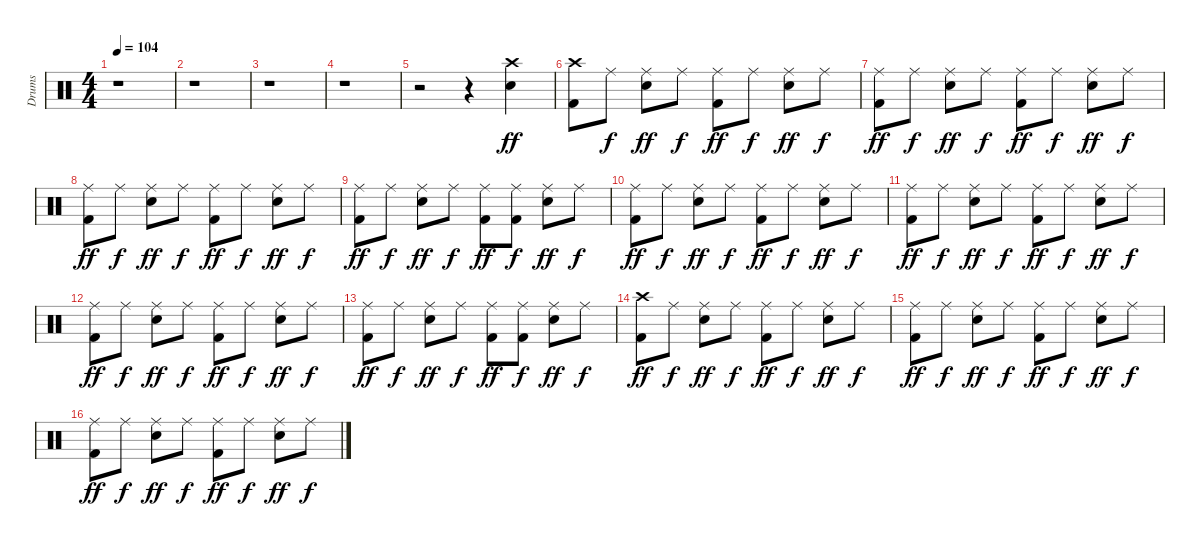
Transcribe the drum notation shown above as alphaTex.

\track ("Drums" "Drums") {instrument percussion}
\staff {score}
\articulation defaults
\ts (4 4)
\tempo 104
\clef neutral
\ks c
r.1{dy ff} |
r.1 |
r.1 |
r.1 |
r.2 r.4 ("Crash high (hit)" "Snare (hit) 2").4 |
("Crash high (hit)" "Kick (hit) 2").8 "Ride (middle)".8{dy f} ("Ride (middle)" "Snare (hit) 2").8{dy ff} "Ride (middle)".8{dy f} ("Ride (middle)" "Kick (hit) 2").8{dy ff} "Ride (middle)".8{dy f} ("Ride (middle)" "Snare (hit) 2").8{dy ff} "Ride (middle)".8{dy f} |
("Ride (middle)" "Kick (hit) 2").8{dy ff} "Ride (middle)".8{dy f} ("Ride (middle)" "Snare (hit) 2").8{dy ff} "Ride (middle)".8{dy f} ("Ride (middle)" "Kick (hit) 2").8{dy ff} "Ride (middle)".8{dy f} ("Ride (middle)" "Snare (hit) 2").8{dy ff} "Ride (middle)".8{dy f} |
("Ride (middle)" "Kick (hit) 2").8{dy ff} "Ride (middle)".8{dy f} ("Ride (middle)" "Snare (hit) 2").8{dy ff} "Ride (middle)".8{dy f} ("Ride (middle)" "Kick (hit) 2").8{dy ff} "Ride (middle)".8{dy f} ("Ride (middle)" "Snare (hit) 2").8{dy ff} "Ride (middle)".8{dy f} |
("Ride (middle)" "Kick (hit) 2").8{dy ff} "Ride (middle)".8{dy f} ("Ride (middle)" "Snare (hit) 2").8{dy ff} "Ride (middle)".8{dy f} ("Ride (middle)" "Kick (hit) 2").8{dy ff} ("Ride (middle)" "Kick (hit) 2").8{dy f} ("Ride (middle)" "Snare (hit) 2").8{dy ff} "Ride (middle)".8{dy f} |
("Ride (middle)" "Kick (hit) 2").8{dy ff} "Ride (middle)".8{dy f} ("Ride (middle)" "Snare (hit) 2").8{dy ff} "Ride (middle)".8{dy f} ("Ride (middle)" "Kick (hit) 2").8{dy ff} "Ride (middle)".8{dy f} ("Ride (middle)" "Snare (hit) 2").8{dy ff} "Ride (middle)".8{dy f} |
("Ride (middle)" "Kick (hit) 2").8{dy ff} "Ride (middle)".8{dy f} ("Ride (middle)" "Snare (hit) 2").8{dy ff} "Ride (middle)".8{dy f} ("Ride (middle)" "Kick (hit) 2").8{dy ff} "Ride (middle)".8{dy f} ("Ride (middle)" "Snare (hit) 2").8{dy ff} "Ride (middle)".8{dy f} |
("Ride (middle)" "Kick (hit) 2").8{dy ff} "Ride (middle)".8{dy f} ("Ride (middle)" "Snare (hit) 2").8{dy ff} "Ride (middle)".8{dy f} ("Ride (middle)" "Kick (hit) 2").8{dy ff} "Ride (middle)".8{dy f} ("Ride (middle)" "Snare (hit) 2").8{dy ff} "Ride (middle)".8{dy f} |
("Ride (middle)" "Kick (hit) 2").8{dy ff} "Ride (middle)".8{dy f} ("Ride (middle)" "Snare (hit) 2").8{dy ff} "Ride (middle)".8{dy f} ("Ride (middle)" "Kick (hit) 2").8{dy ff} ("Ride (middle)" "Kick (hit) 2").8{dy f} ("Ride (middle)" "Snare (hit) 2").8{dy ff} "Ride (middle)".8{dy f} |
("Crash high (hit)" "Kick (hit) 2").8{dy ff} "Ride (middle)".8{dy f} ("Ride (middle)" "Snare (hit) 2").8{dy ff} "Ride (middle)".8{dy f} ("Ride (middle)" "Kick (hit) 2").8{dy ff} "Ride (middle)".8{dy f} ("Ride (middle)" "Snare (hit) 2").8{dy ff} "Ride (middle)".8{dy f} |
("Ride (middle)" "Kick (hit) 2").8{dy ff} "Ride (middle)".8{dy f} ("Ride (middle)" "Snare (hit) 2").8{dy ff} "Ride (middle)".8{dy f} ("Ride (middle)" "Kick (hit) 2").8{dy ff} "Ride (middle)".8{dy f} ("Ride (middle)" "Snare (hit) 2").8{dy ff} "Ride (middle)".8{dy f} |
("Ride (middle)" "Kick (hit) 2").8{dy ff} "Ride (middle)".8{dy f} ("Ride (middle)" "Snare (hit) 2").8{dy ff} "Ride (middle)".8{dy f} ("Ride (middle)" "Kick (hit) 2").8{dy ff} "Ride (middle)".8{dy f} ("Ride (middle)" "Snare (hit) 2").8{dy ff} "Ride (middle)".8{dy f}
